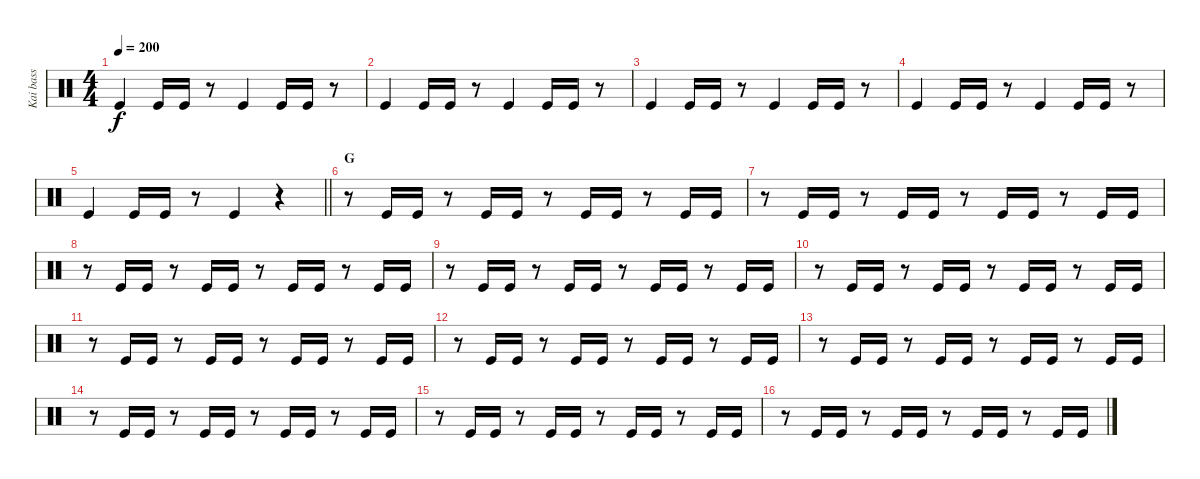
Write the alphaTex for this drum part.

\track ("Kai bass" "Kai bass") {instrument percussion}
\staff {score}
\articulation defaults
\ts (4 4)
\tempo 200
\clef neutral
\ks c "Kick (hit)".4{dy f} "Kick (hit)".16 "Kick (hit)".16
r.8 "Kick (hit)".4 "Kick (hit)".16 "Kick (hit)".16 r.8 |
"Kick (hit)".4 "Kick (hit)".16 "Kick (hit)".16 r.8 "Kick (hit)".4 "Kick (hit)".16 "Kick (hit)".16 r.8 |
"Kick (hit)".4 "Kick (hit)".16 "Kick (hit)".16 r.8 "Kick (hit)".4 "Kick (hit)".16 "Kick (hit)".16 r.8 |
"Kick (hit)".4 "Kick (hit)".16 "Kick (hit)".16 r.8 "Kick (hit)".4 "Kick (hit)".16 "Kick (hit)".16 r.8 |
\barLineRight lightlight "Kick (hit)".4 "Kick (hit)".16 "Kick (hit)".16
r.8 "Kick (hit)".4 r.4 |
\section ("" "G")
r.8 "Kick (hit)".16 "Kick (hit)".16 r.8 "Kick (hit)".16 "Kick (hit)".16 r.8 "Kick (hit)".16 "Kick (hit)".16 r.8 "Kick (hit)".16 "Kick (hit)".16 |
r.8 "Kick (hit)".16 "Kick (hit)".16 r.8 "Kick (hit)".16 "Kick (hit)".16 r.8 "Kick (hit)".16 "Kick (hit)".16 r.8 "Kick (hit)".16 "Kick (hit)".16 |
r.8 "Kick (hit)".16 "Kick (hit)".16 r.8 "Kick (hit)".16 "Kick (hit)".16 r.8 "Kick (hit)".16 "Kick (hit)".16 r.8 "Kick (hit)".16 "Kick (hit)".16 |
r.8 "Kick (hit)".16 "Kick (hit)".16 r.8 "Kick (hit)".16 "Kick (hit)".16 r.8 "Kick (hit)".16 "Kick (hit)".16 r.8 "Kick (hit)".16 "Kick (hit)".16 |
r.8 "Kick (hit)".16 "Kick (hit)".16 r.8 "Kick (hit)".16 "Kick (hit)".16 r.8 "Kick (hit)".16 "Kick (hit)".16 r.8 "Kick (hit)".16 "Kick (hit)".16 |
r.8 "Kick (hit)".16 "Kick (hit)".16 r.8 "Kick (hit)".16 "Kick (hit)".16 r.8 "Kick (hit)".16 "Kick (hit)".16 r.8 "Kick (hit)".16 "Kick (hit)".16 |
r.8 "Kick (hit)".16 "Kick (hit)".16 r.8 "Kick (hit)".16 "Kick (hit)".16 r.8 "Kick (hit)".16 "Kick (hit)".16 r.8 "Kick (hit)".16 "Kick (hit)".16 |
r.8 "Kick (hit)".16 "Kick (hit)".16 r.8 "Kick (hit)".16 "Kick (hit)".16 r.8 "Kick (hit)".16 "Kick (hit)".16 r.8 "Kick (hit)".16 "Kick (hit)".16 |
r.8 "Kick (hit)".16 "Kick (hit)".16 r.8 "Kick (hit)".16 "Kick (hit)".16 r.8 "Kick (hit)".16 "Kick (hit)".16 r.8 "Kick (hit)".16 "Kick (hit)".16 |
r.8 "Kick (hit)".16 "Kick (hit)".16 r.8 "Kick (hit)".16 "Kick (hit)".16 r.8 "Kick (hit)".16 "Kick (hit)".16 r.8 "Kick (hit)".16 "Kick (hit)".16 |
r.8 "Kick (hit)".16 "Kick (hit)".16 r.8 "Kick (hit)".16 "Kick (hit)".16 r.8 "Kick (hit)".16 "Kick (hit)".16 r.8 "Kick (hit)".16 "Kick (hit)".16
